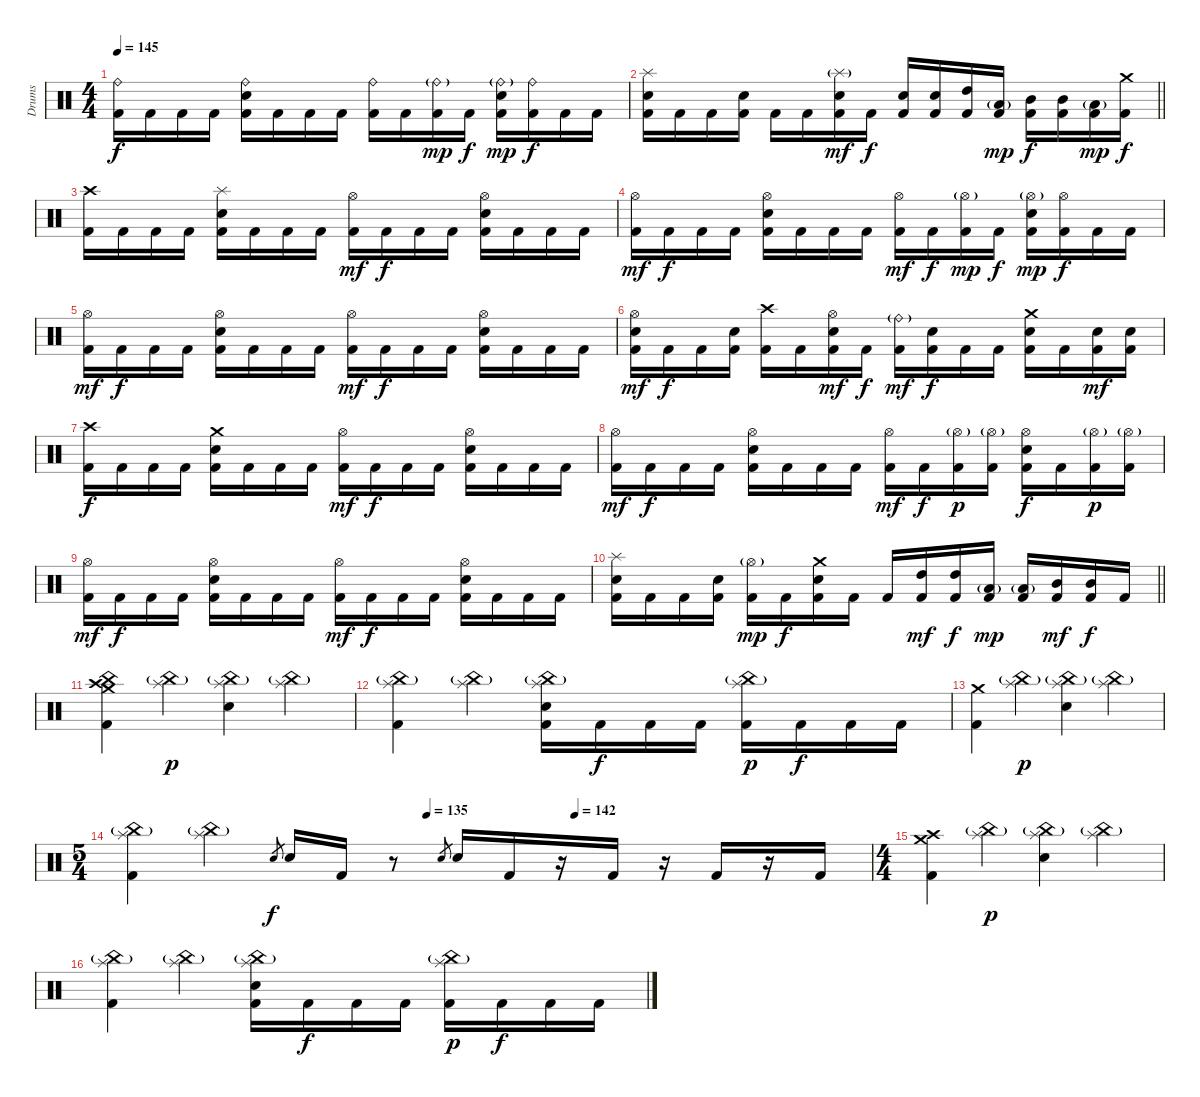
\track ("Drums" "Drums") {instrument percussion}
\staff {score}
\articulation defaults
\ts (4 4)
\tempo 145
\clef neutral
\ks c
("Ride (bell)" "Kick (hit) 2").16{dy f} "Kick (hit) 2".16 "Kick (hit) 2".16 "Kick (hit) 2".16 ("Ride (bell)" "Electric Snare (hit)" "Kick (hit) 2").16 "Kick (hit) 2".16 "Kick (hit) 2".16 "Kick (hit) 2".16 ("Ride (bell)" "Kick (hit) 2").16 "Kick (hit) 2".16 ("Ride (bell)"{g} "Kick (hit) 2").16{dy mp} "Kick (hit) 2".16{dy f} ("Ride (bell)"{g} "Electric Snare (hit)" "Kick (hit) 2").16{dy mp} ("Ride (bell)" "Kick (hit) 2").16{dy f} "Kick (hit) 2".16 "Kick (hit) 2".16 |
\barLineRight lightlight
("Splash (hit)" "Electric Snare (hit)" "Kick (hit) 2").16 "Kick (hit) 2".16 "Kick (hit) 2".16 ("Electric Snare (hit)" "Kick (hit) 2").16 "Kick (hit) 2".16 "Kick (hit) 2".16 ("Splash (hit)"{g} "Electric Snare (hit)" "Kick (hit) 2").16{dy mf} "Kick (hit) 2".16{dy f} ("Electric Snare (hit)" "Kick (hit) 2").16 ("Electric Snare (hit)" "Kick (hit) 2").16 ("High Tom (hit)" "Kick (hit) 2").16 ("Low Floor Tom (hit)"{g} "Kick (hit) 2").16{dy mp} ("Mid Tom (hit)" "Kick (hit) 2").16{dy f} ("Mid Tom (hit)" "Kick (hit) 2").16 ("Low Floor Tom (hit)"{g} "Kick (hit) 2").16{dy mp} ("Crash medium (hit)" "Kick (hit) 2").16{dy f} |
("Crash high (hit)" "Kick (hit) 2").16 "Kick (hit) 2".16 "Kick (hit) 2".16 "Kick (hit) 2".16 ("Splash (hit)" "Electric Snare (hit)" "Kick (hit) 2").16 "Kick (hit) 2".16 "Kick (hit) 2".16 "Kick (hit) 2".16 ("Hi-Hat (open)" "Kick (hit) 2").16{dy mf} "Kick (hit) 2".16{dy f} "Kick (hit) 2".16 "Kick (hit) 2".16 ("Hi-Hat (open)" "Electric Snare (hit)" "Kick (hit) 2").16 "Kick (hit) 2".16 "Kick (hit) 2".16 "Kick (hit) 2".16 |
("Hi-Hat (open)" "Kick (hit) 2").16{dy mf} "Kick (hit) 2".16{dy f} "Kick (hit) 2".16 "Kick (hit) 2".16 ("Hi-Hat (open)" "Electric Snare (hit)" "Kick (hit) 2").16 "Kick (hit) 2".16 "Kick (hit) 2".16 "Kick (hit) 2".16 ("Hi-Hat (open)" "Kick (hit) 2").16{dy mf} "Kick (hit) 2".16{dy f} ("Hi-Hat (open)"{g} "Kick (hit) 2").16{dy mp} "Kick (hit) 2".16{dy f} ("Hi-Hat (open)"{g} "Electric Snare (hit)" "Kick (hit) 2").16{dy mp} ("Hi-Hat (open)" "Kick (hit) 2").16{dy f} "Kick (hit) 2".16 "Kick (hit) 2".16 |
("Hi-Hat (open)" "Kick (hit) 2").16{dy mf} "Kick (hit) 2".16{dy f} "Kick (hit) 2".16 "Kick (hit) 2".16 ("Hi-Hat (open)" "Electric Snare (hit)" "Kick (hit) 2").16 "Kick (hit) 2".16 "Kick (hit) 2".16 "Kick (hit) 2".16 ("Hi-Hat (open)" "Kick (hit) 2").16{dy mf} "Kick (hit) 2".16{dy f} "Kick (hit) 2".16 "Kick (hit) 2".16 ("Hi-Hat (open)" "Electric Snare (hit)" "Kick (hit) 2").16 "Kick (hit) 2".16 "Kick (hit) 2".16 "Kick (hit) 2".16 |
("Hi-Hat (open)" "Electric Snare (hit)" "Kick (hit) 2").16{dy mf} "Kick (hit) 2".16{dy f} "Kick (hit) 2".16 ("Electric Snare (hit)" "Kick (hit) 2").16 ("Crash high (hit)" "Kick (hit) 2").16 "Kick (hit) 2".16 ("Hi-Hat (open)" "Electric Snare (hit)" "Kick (hit) 2").16{dy mf} "Kick (hit) 2".16{dy f} ("Ride (bell)"{g} "Kick (hit) 2").16{dy mf} ("Electric Snare (hit)" "Kick (hit) 2").16{dy f} "Kick (hit) 2".16 "Kick (hit) 2".16 ("Crash medium (hit)" "Electric Snare (hit)" "Kick (hit) 2").16 "Kick (hit) 2".16 ("Electric Snare (hit)" "Kick (hit) 2").16{dy mf} ("Electric Snare (hit)" "Kick (hit) 2").16 |
("Crash high (hit)" "Kick (hit) 2").16{dy f} "Kick (hit) 2".16 "Kick (hit) 2".16 "Kick (hit) 2".16 ("Crash medium (hit)" "Electric Snare (hit)" "Kick (hit) 2").16 "Kick (hit) 2".16 "Kick (hit) 2".16 "Kick (hit) 2".16 ("Hi-Hat (open)" "Kick (hit) 2").16{dy mf} "Kick (hit) 2".16{dy f} "Kick (hit) 2".16 "Kick (hit) 2".16 ("Hi-Hat (open)" "Electric Snare (hit)" "Kick (hit) 2").16 "Kick (hit) 2".16 "Kick (hit) 2".16 "Kick (hit) 2".16 |
("Hi-Hat (open)" "Kick (hit) 2").16{dy mf} "Kick (hit) 2".16{dy f} "Kick (hit) 2".16 "Kick (hit) 2".16 ("Hi-Hat (open)" "Electric Snare (hit)" "Kick (hit) 2").16 "Kick (hit) 2".16 "Kick (hit) 2".16 "Kick (hit) 2".16 ("Hi-Hat (open)" "Kick (hit) 2").16{dy mf} "Kick (hit) 2".16{dy f} ("Hi-Hat (open)"{g} "Kick (hit) 2").16{dy p} ("Hi-Hat (open)"{g} "Kick (hit) 2").16 ("Hi-Hat (open)" "Electric Snare (hit)" "Kick (hit) 2").16{dy f} "Kick (hit) 2".16 ("Hi-Hat (open)"{g} "Kick (hit) 2").16{dy p} ("Hi-Hat (open)"{g} "Kick (hit) 2").16 |
("Hi-Hat (open)" "Kick (hit) 2").16{dy mf} "Kick (hit) 2".16{dy f} "Kick (hit) 2".16 "Kick (hit) 2".16 ("Hi-Hat (open)" "Electric Snare (hit)" "Kick (hit) 2").16 "Kick (hit) 2".16 "Kick (hit) 2".16 "Kick (hit) 2".16 ("Hi-Hat (open)" "Kick (hit) 2").16{dy mf} "Kick (hit) 2".16{dy f} "Kick (hit) 2".16 "Kick (hit) 2".16 ("Hi-Hat (open)" "Electric Snare (hit)" "Kick (hit) 2").16 "Kick (hit) 2".16 "Kick (hit) 2".16 "Kick (hit) 2".16 |
\barLineRight lightlight
("Splash (hit)" "Electric Snare (hit)" "Kick (hit) 2").16 "Kick (hit) 2".16 "Kick (hit) 2".16 ("Electric Snare (hit)" "Kick (hit) 2").16 ("Hi-Hat (open)"{g} "Kick (hit) 2").16{dy mp} "Kick (hit) 2".16{dy f} ("Crash medium (hit)" "Electric Snare (hit)" "Kick (hit) 2").16 "Kick (hit) 2".16 "Kick (hit) 2".16 ("High Tom (hit)" "Kick (hit) 2").16{dy mf} ("High Tom (hit)" "Kick (hit) 2").16{dy f} ("Low Floor Tom (hit)"{g} "Kick (hit) 2").16{dy mp} ("Low Floor Tom (hit)"{g} "Kick (hit) 2").16 ("Mid Tom (hit)" "Kick (hit) 2").16{dy mf} ("Mid Tom (hit)" "Kick (hit) 2").16{dy f} "Kick (hit) 2".16 |
("Crash high (hit)" "Crash medium (hit)" "China (hit)" "Kick (hit) 2").4 ("Splash (hit)" "China (hit)"{g}).4{dy p} ("Splash (hit)" "China (hit)"{g} "Electric Snare (hit)").4 ("Splash (hit)" "China (hit)"{g}).4 |
("Splash (hit)" "China (hit)"{g} "Kick (hit) 2").4 ("Splash (hit)" "China (hit)"{g}).4 ("Splash (hit)" "China (hit)"{g} "Electric Snare (hit)" "Kick (hit) 2").16 "Kick (hit) 2".16{dy f} "Kick (hit) 2".16 "Kick (hit) 2".16 ("Splash (hit)" "China (hit)"{g} "Kick (hit) 2").16{dy p} "Kick (hit) 2".16{dy f} "Kick (hit) 2".16 "Kick (hit) 2".16 |
("Crash medium (hit)" "Kick (hit) 2").4 ("Splash (hit)" "China (hit)"{g}).4{dy p} ("Splash (hit)" "China (hit)"{g} "Electric Snare (hit)").4 ("Splash (hit)" "China (hit)"{g}).4 |
\ts (5 4)
\tempo (135 0.4)
\tempo (142 0.6)
("Splash (hit)" "China (hit)"{g} "Kick (hit) 2").4 ("Splash (hit)" "China (hit)"{g}).4 "Electric Snare (hit)".8{gr dy f} "Electric Snare (hit)".16 "Kick (hit) 2".16 r.8 "Electric Snare (hit)".8{gr} "Electric Snare (hit)".16 "Kick (hit) 2".16 r.16 "Kick (hit) 2".16 r.16 "Kick (hit) 2".16 r.16 "Kick (hit) 2".16 |
\ts (4 4)
("Crash high (hit)" "Crash medium (hit)" "Kick (hit) 2").4 ("Splash (hit)" "China (hit)"{g}).4{dy p} ("Splash (hit)" "China (hit)"{g} "Electric Snare (hit)").4 ("Splash (hit)" "China (hit)"{g}).4 |
("Splash (hit)" "China (hit)"{g} "Kick (hit) 2").4 ("Splash (hit)" "China (hit)"{g}).4 ("Splash (hit)" "China (hit)"{g} "Electric Snare (hit)" "Kick (hit) 2").16 "Kick (hit) 2".16{dy f} "Kick (hit) 2".16 "Kick (hit) 2".16 ("Splash (hit)" "China (hit)"{g} "Kick (hit) 2").16{dy p} "Kick (hit) 2".16{dy f} "Kick (hit) 2".16 "Kick (hit) 2".16
